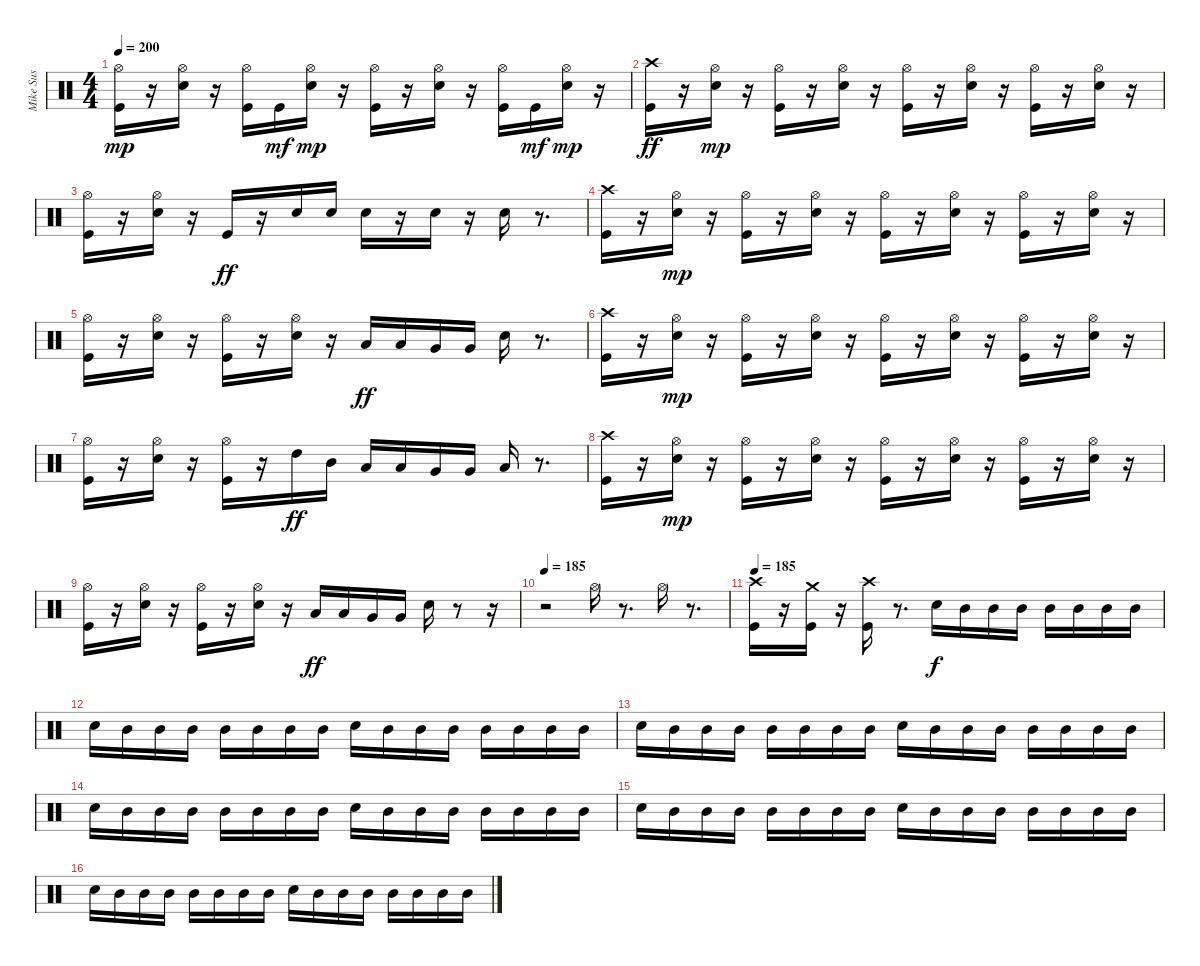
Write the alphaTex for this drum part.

\track ("Mike Sus" "Mike Sus") {instrument percussion}
\staff {score}
\articulation defaults
\ts (4 4)
\tempo 200
\clef neutral
\ks c
("Kick (hit)" "Hi-Hat (open)").16{dy mp} r.16 ("Snare (hit) 2" "Hi-Hat (open)").16 r.16 ("Kick (hit)" "Hi-Hat (open)").16 "Kick (hit)".16{dy mf} ("Snare (hit) 2" "Hi-Hat (open)").16{dy mp} r.16 ("Kick (hit)" "Hi-Hat (open)").16 r.16 ("Snare (hit) 2" "Hi-Hat (open)").16 r.16 ("Kick (hit)" "Hi-Hat (open)").16 "Kick (hit)".16{dy mf} ("Snare (hit) 2" "Hi-Hat (open)").16{dy mp} r.16 |
("Kick (hit)" "Crash high (hit)").16{dy ff} r.16 ("Snare (hit) 2" "Hi-Hat (open)").16{dy mp} r.16 ("Kick (hit)" "Hi-Hat (open)").16 r.16 ("Snare (hit) 2" "Hi-Hat (open)").16 r.16 ("Kick (hit)" "Hi-Hat (open)").16 r.16 ("Snare (hit) 2" "Hi-Hat (open)").16 r.16 ("Kick (hit)" "Hi-Hat (open)").16 r.16 ("Snare (hit) 2" "Hi-Hat (open)").16 r.16 |
("Kick (hit)" "Hi-Hat (open)").16 r.16 ("Snare (hit) 2" "Hi-Hat (open)").16 r.16 "Kick (hit)".16{dy ff} r.16 "Snare (hit) 2".16 "Snare (hit) 2".16 "Snare (hit) 2".16 r.16 "Snare (hit) 2".16 r.16 "Snare (hit) 2".16 r.8{d} |
("Kick (hit)" "Crash high (hit)").16 r.16 ("Snare (hit) 2" "Hi-Hat (open)").16{dy mp} r.16 ("Kick (hit)" "Hi-Hat (open)").16 r.16 ("Snare (hit) 2" "Hi-Hat (open)").16 r.16 ("Kick (hit)" "Hi-Hat (open)").16 r.16 ("Snare (hit) 2" "Hi-Hat (open)").16 r.16 ("Kick (hit)" "Hi-Hat (open)").16 r.16 ("Snare (hit) 2" "Hi-Hat (open)").16 r.16 |
("Kick (hit)" "Hi-Hat (open)").16 r.16 ("Snare (hit) 2" "Hi-Hat (open)").16 r.16 ("Kick (hit)" "Hi-Hat (open)").16 r.16 ("Snare (hit) 2" "Hi-Hat (open)").16 r.16 "Low Tom (hit)".16{dy ff} "Low Tom (hit)".16 "Very Low Tom (hit)".16 "Very Low Tom (hit)".16 "Snare (hit) 2".16 r.8{d} |
("Kick (hit)" "Crash high (hit)").16 r.16 ("Snare (hit) 2" "Hi-Hat (open)").16{dy mp} r.16 ("Kick (hit)" "Hi-Hat (open)").16 r.16 ("Snare (hit) 2" "Hi-Hat (open)").16 r.16 ("Kick (hit)" "Hi-Hat (open)").16 r.16 ("Snare (hit) 2" "Hi-Hat (open)").16 r.16 ("Kick (hit)" "Hi-Hat (open)").16 r.16 ("Snare (hit) 2" "Hi-Hat (open)").16 r.16 |
("Kick (hit)" "Hi-Hat (open)").16 r.16 ("Snare (hit) 2" "Hi-Hat (open)").16 r.16 ("Kick (hit)" "Hi-Hat (open)").16 r.16 "High Tom (hit)".16{dy ff} "Mid Tom (hit)".16 "Low Tom (hit)".16 "Low Tom (hit)".16 "Very Low Tom (hit)".16 "Very Low Tom (hit)".16 "Low Floor Tom (hit)".16 r.8{d} |
("Kick (hit)" "Crash high (hit)").16 r.16 ("Snare (hit) 2" "Hi-Hat (open)").16{dy mp} r.16 ("Kick (hit)" "Hi-Hat (open)").16 r.16 ("Snare (hit) 2" "Hi-Hat (open)").16 r.16 ("Kick (hit)" "Hi-Hat (open)").16 r.16 ("Snare (hit) 2" "Hi-Hat (open)").16 r.16 ("Kick (hit)" "Hi-Hat (open)").16 r.16 ("Snare (hit) 2" "Hi-Hat (open)").16 r.16 |
("Kick (hit)" "Hi-Hat (open)").16 r.16 ("Snare (hit) 2" "Hi-Hat (open)").16 r.16 ("Kick (hit)" "Hi-Hat (open)").16 r.16 ("Snare (hit) 2" "Hi-Hat (open)").16 r.16 "Low Tom (hit)".16{dy ff} "Low Tom (hit)".16 "Very Low Tom (hit)".16 "Very Low Tom (hit)".16 "Snare (hit) 2".16 r.8 r.16 |
\tempo 185
r.2 "Hi-Hat (open)".16 r.8{d} "Hi-Hat (open)".16 r.8{d} |
\tempo 185
("Kick (hit)" "Crash high (hit)").16 r.16 ("Kick (hit)" "Crash medium (hit)").16 r.16 ("Kick (hit)" "Crash high (hit)").16 r.8{d} "Snare (hit) 2".16{dy f} "Mid Tom (hit)".16 "Mid Tom (hit)".16 "Mid Tom (hit)".16 "Mid Tom (hit)".16 "Mid Tom (hit)".16 "Mid Tom (hit)".16 "Mid Tom (hit)".16 |
"Snare (hit) 2".16 "Mid Tom (hit)".16 "Mid Tom (hit)".16 "Mid Tom (hit)".16 "Mid Tom (hit)".16 "Mid Tom (hit)".16 "Mid Tom (hit)".16 "Mid Tom (hit)".16 "Snare (hit) 2".16 "Mid Tom (hit)".16 "Mid Tom (hit)".16 "Mid Tom (hit)".16 "Mid Tom (hit)".16 "Mid Tom (hit)".16 "Mid Tom (hit)".16 "Mid Tom (hit)".16 |
"Snare (hit) 2".16 "Mid Tom (hit)".16 "Mid Tom (hit)".16 "Mid Tom (hit)".16 "Mid Tom (hit)".16 "Mid Tom (hit)".16 "Mid Tom (hit)".16 "Mid Tom (hit)".16 "Snare (hit) 2".16 "Mid Tom (hit)".16 "Mid Tom (hit)".16 "Mid Tom (hit)".16 "Mid Tom (hit)".16 "Mid Tom (hit)".16 "Mid Tom (hit)".16 "Mid Tom (hit)".16 |
"Snare (hit) 2".16 "Mid Tom (hit)".16 "Mid Tom (hit)".16 "Mid Tom (hit)".16 "Mid Tom (hit)".16 "Mid Tom (hit)".16 "Mid Tom (hit)".16 "Mid Tom (hit)".16 "Snare (hit) 2".16 "Mid Tom (hit)".16 "Mid Tom (hit)".16 "Mid Tom (hit)".16 "Mid Tom (hit)".16 "Mid Tom (hit)".16 "Mid Tom (hit)".16 "Mid Tom (hit)".16 |
"Snare (hit) 2".16 "Mid Tom (hit)".16 "Mid Tom (hit)".16 "Mid Tom (hit)".16 "Mid Tom (hit)".16 "Mid Tom (hit)".16 "Mid Tom (hit)".16 "Mid Tom (hit)".16 "Snare (hit) 2".16 "Mid Tom (hit)".16 "Mid Tom (hit)".16 "Mid Tom (hit)".16 "Mid Tom (hit)".16 "Mid Tom (hit)".16 "Mid Tom (hit)".16 "Mid Tom (hit)".16 |
"Snare (hit) 2".16 "Mid Tom (hit)".16 "Mid Tom (hit)".16 "Mid Tom (hit)".16 "Mid Tom (hit)".16 "Mid Tom (hit)".16 "Mid Tom (hit)".16 "Mid Tom (hit)".16 "Snare (hit) 2".16 "Mid Tom (hit)".16 "Mid Tom (hit)".16 "Mid Tom (hit)".16 "Mid Tom (hit)".16 "Mid Tom (hit)".16 "Mid Tom (hit)".16 "Mid Tom (hit)".16
